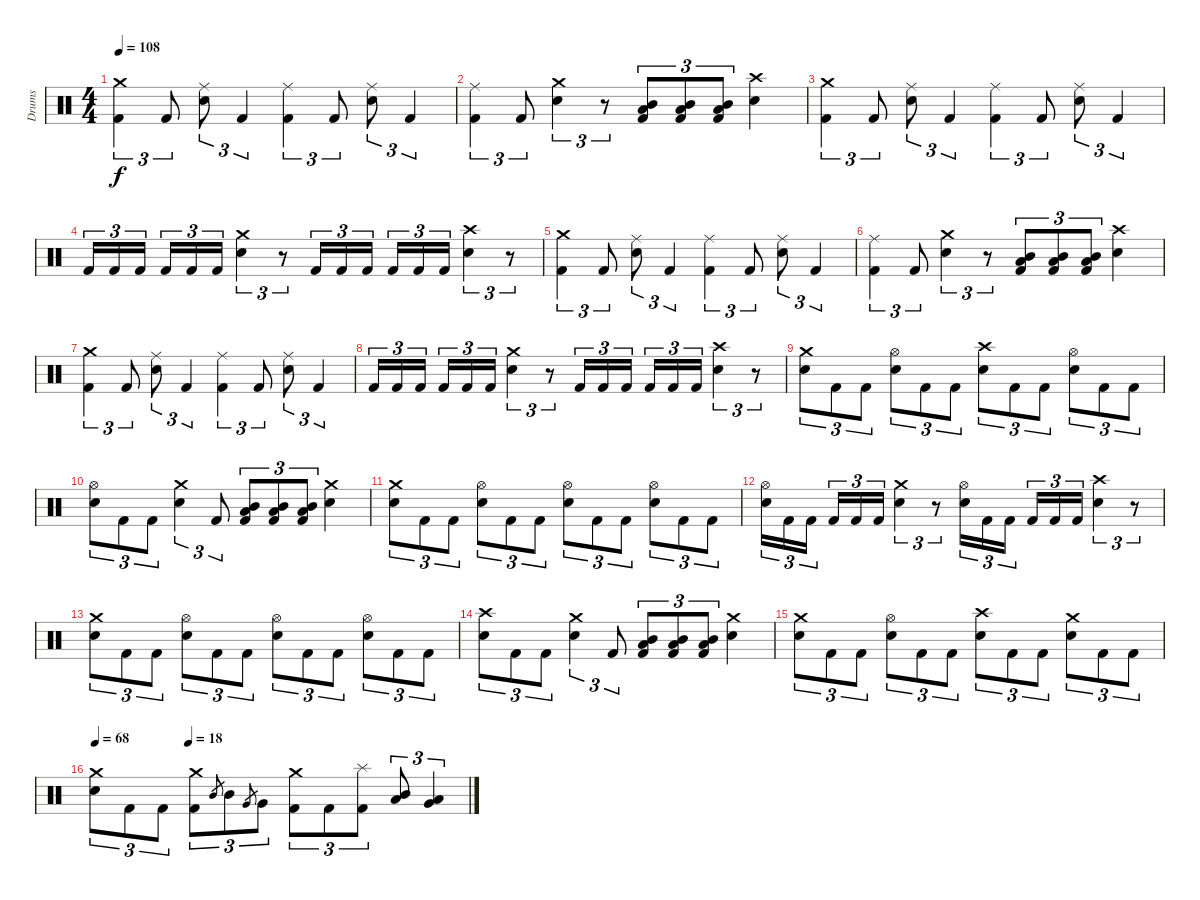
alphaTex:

\track ("Drums" "Drums") {instrument percussion}
\staff {score}
\articulation defaults
\ts (4 4)
\tempo 108
\clef neutral
\ks c
("Crash medium (hit)" "Kick (hit) 2").4{tu (3 2) dy f} "Kick (hit) 2".8{tu (3 2)} ("Ride (middle)" "Electric Snare (hit)").8{tu (3 2)} "Kick (hit) 2".4{tu (3 2)} ("Ride (middle)" "Kick (hit) 2").4{tu (3 2)} "Kick (hit) 2".8{tu (3 2)} ("Ride (middle)" "Electric Snare (hit)").8{tu (3 2)} "Kick (hit) 2".4{tu (3 2)} |
("Ride (middle)" "Kick (hit) 2").4{tu (3 2)} "Kick (hit) 2".8{tu (3 2)} ("Crash medium (hit)" "Electric Snare (hit)").4{tu (3 2)} r.8{tu (3 2)} ("Low Tom (hit)" "Mid Tom (hit)" "Kick (hit) 2").8{tu (3 2)} ("Low Tom (hit)" "Mid Tom (hit)" "Kick (hit) 2").8{tu (3 2)} ("Low Tom (hit)" "Mid Tom (hit)" "Kick (hit) 2").8{tu (3 2)} ("Crash high (hit)" "Electric Snare (hit)").4 |
("Crash medium (hit)" "Kick (hit) 2").4{tu (3 2)} "Kick (hit) 2".8{tu (3 2)} ("Ride (middle)" "Electric Snare (hit)").8{tu (3 2)} "Kick (hit) 2".4{tu (3 2)} ("Ride (middle)" "Kick (hit) 2").4{tu (3 2)} "Kick (hit) 2".8{tu (3 2)} ("Ride (middle)" "Electric Snare (hit)").8{tu (3 2)} "Kick (hit) 2".4{tu (3 2)} |
"Kick (hit) 2".16{tu (3 2)} "Kick (hit) 2".16{tu (3 2)} "Kick (hit) 2".16{tu (3 2) beam splitsecondary} "Kick (hit) 2".16{tu (3 2)} "Kick (hit) 2".16{tu (3 2)} "Kick (hit) 2".16{tu (3 2)} ("Crash medium (hit)" "Electric Snare (hit)").4{tu (3 2)} r.8{tu (3 2)} "Kick (hit) 2".16{tu (3 2)} "Kick (hit) 2".16{tu (3 2)} "Kick (hit) 2".16{tu (3 2) beam splitsecondary} "Kick (hit) 2".16{tu (3 2)} "Kick (hit) 2".16{tu (3 2)} "Kick (hit) 2".16{tu (3 2)} ("Crash high (hit)" "Electric Snare (hit)").4{tu (3 2)} r.8{tu (3 2)} |
("Crash medium (hit)" "Kick (hit) 2").4{tu (3 2)} "Kick (hit) 2".8{tu (3 2)} ("Ride (middle)" "Electric Snare (hit)").8{tu (3 2)} "Kick (hit) 2".4{tu (3 2)} ("Ride (middle)" "Kick (hit) 2").4{tu (3 2)} "Kick (hit) 2".8{tu (3 2)} ("Ride (middle)" "Electric Snare (hit)").8{tu (3 2)} "Kick (hit) 2".4{tu (3 2)} |
("Ride (middle)" "Kick (hit) 2").4{tu (3 2)} "Kick (hit) 2".8{tu (3 2)} ("Crash medium (hit)" "Electric Snare (hit)").4{tu (3 2)} r.8{tu (3 2)} ("Low Tom (hit)" "Mid Tom (hit)" "Kick (hit) 2").8{tu (3 2)} ("Low Tom (hit)" "Mid Tom (hit)" "Kick (hit) 2").8{tu (3 2)} ("Low Tom (hit)" "Mid Tom (hit)" "Kick (hit) 2").8{tu (3 2)} ("Crash high (hit)" "Electric Snare (hit)").4 |
("Crash medium (hit)" "Kick (hit) 2").4{tu (3 2)} "Kick (hit) 2".8{tu (3 2)} ("Ride (middle)" "Electric Snare (hit)").8{tu (3 2)} "Kick (hit) 2".4{tu (3 2)} ("Ride (middle)" "Kick (hit) 2").4{tu (3 2)} "Kick (hit) 2".8{tu (3 2)} ("Ride (middle)" "Electric Snare (hit)").8{tu (3 2)} "Kick (hit) 2".4{tu (3 2)} |
"Kick (hit) 2".16{tu (3 2)} "Kick (hit) 2".16{tu (3 2)} "Kick (hit) 2".16{tu (3 2) beam splitsecondary} "Kick (hit) 2".16{tu (3 2)} "Kick (hit) 2".16{tu (3 2)} "Kick (hit) 2".16{tu (3 2)} ("Crash medium (hit)" "Electric Snare (hit)").4{tu (3 2)} r.8{tu (3 2)} "Kick (hit) 2".16{tu (3 2)} "Kick (hit) 2".16{tu (3 2)} "Kick (hit) 2".16{tu (3 2) beam splitsecondary} "Kick (hit) 2".16{tu (3 2)} "Kick (hit) 2".16{tu (3 2)} "Kick (hit) 2".16{tu (3 2)} ("Crash high (hit)" "Electric Snare (hit)").4{tu (3 2)} r.8{tu (3 2)} |
("Crash medium (hit)" "Electric Snare (hit)").8{tu (3 2)} "Kick (hit) 2".8{tu (3 2)} "Kick (hit) 2".8{tu (3 2)} ("Hi-Hat (open)" "Electric Snare (hit)").8{tu (3 2)} "Kick (hit) 2".8{tu (3 2)} "Kick (hit) 2".8{tu (3 2)} ("Crash high (hit)" "Electric Snare (hit)").8{tu (3 2)} "Kick (hit) 2".8{tu (3 2)} "Kick (hit) 2".8{tu (3 2)} ("Hi-Hat (open)" "Electric Snare (hit)").8{tu (3 2)} "Kick (hit) 2".8{tu (3 2)} "Kick (hit) 2".8{tu (3 2)} |
("Hi-Hat (open)" "Electric Snare (hit)").8{tu (3 2)} "Kick (hit) 2".8{tu (3 2)} "Kick (hit) 2".8{tu (3 2)} ("Crash medium (hit)" "Electric Snare (hit)").4{tu (3 2)} "Kick (hit) 2".8{tu (3 2)} ("Low Tom (hit)" "Mid Tom (hit)" "Kick (hit) 2").8{tu (3 2)} ("Low Tom (hit)" "Mid Tom (hit)" "Kick (hit) 2").8{tu (3 2)} ("Low Tom (hit)" "Mid Tom (hit)" "Kick (hit) 2").8{tu (3 2)} ("Crash medium (hit)" "Electric Snare (hit)").4 |
("Crash medium (hit)" "Electric Snare (hit)").8{tu (3 2)} "Kick (hit) 2".8{tu (3 2)} "Kick (hit) 2".8{tu (3 2)} ("Hi-Hat (open)" "Electric Snare (hit)").8{tu (3 2)} "Kick (hit) 2".8{tu (3 2)} "Kick (hit) 2".8{tu (3 2)} ("Hi-Hat (open)" "Electric Snare (hit)").8{tu (3 2)} "Kick (hit) 2".8{tu (3 2)} "Kick (hit) 2".8{tu (3 2)} ("Hi-Hat (open)" "Electric Snare (hit)").8{tu (3 2)} "Kick (hit) 2".8{tu (3 2)} "Kick (hit) 2".8{tu (3 2)} |
("Hi-Hat (open)" "Electric Snare (hit)").16{tu (3 2)} "Kick (hit) 2".16{tu (3 2)} "Kick (hit) 2".16{tu (3 2) beam splitsecondary} "Kick (hit) 2".16{tu (3 2)} "Kick (hit) 2".16{tu (3 2)} "Kick (hit) 2".16{tu (3 2)} ("Crash medium (hit)" "Electric Snare (hit)").4{tu (3 2)} r.8{tu (3 2)} ("Hi-Hat (open)" "Electric Snare (hit)").16{tu (3 2)} "Kick (hit) 2".16{tu (3 2)} "Kick (hit) 2".16{tu (3 2) beam splitsecondary} "Kick (hit) 2".16{tu (3 2)} "Kick (hit) 2".16{tu (3 2)} "Kick (hit) 2".16{tu (3 2)} ("Crash high (hit)" "Electric Snare (hit)").4{tu (3 2)} r.8{tu (3 2)} |
("Crash medium (hit)" "Electric Snare (hit)").8{tu (3 2)} "Kick (hit) 2".8{tu (3 2)} "Kick (hit) 2".8{tu (3 2)} ("Hi-Hat (open)" "Electric Snare (hit)").8{tu (3 2)} "Kick (hit) 2".8{tu (3 2)} "Kick (hit) 2".8{tu (3 2)} ("Hi-Hat (open)" "Electric Snare (hit)").8{tu (3 2)} "Kick (hit) 2".8{tu (3 2)} "Kick (hit) 2".8{tu (3 2)} ("Hi-Hat (open)" "Electric Snare (hit)").8{tu (3 2)} "Kick (hit) 2".8{tu (3 2)} "Kick (hit) 2".8{tu (3 2)} |
("Crash high (hit)" "Electric Snare (hit)").8{tu (3 2)} "Kick (hit) 2".8{tu (3 2)} "Kick (hit) 2".8{tu (3 2)} ("Crash medium (hit)" "Electric Snare (hit)").4{tu (3 2)} "Kick (hit) 2".8{tu (3 2)} ("Low Tom (hit)" "Mid Tom (hit)" "Kick (hit) 2").8{tu (3 2)} ("Low Tom (hit)" "Mid Tom (hit)" "Kick (hit) 2").8{tu (3 2)} ("Low Tom (hit)" "Mid Tom (hit)" "Kick (hit) 2").8{tu (3 2)} ("Crash medium (hit)" "Electric Snare (hit)").4 |
("Crash medium (hit)" "Electric Snare (hit)").8{tu (3 2)} "Kick (hit) 2".8{tu (3 2)} "Kick (hit) 2".8{tu (3 2)} ("Hi-Hat (open)" "Electric Snare (hit)").8{tu (3 2)} "Kick (hit) 2".8{tu (3 2)} "Kick (hit) 2".8{tu (3 2)} ("Crash high (hit)" "Electric Snare (hit)").8{tu (3 2)} "Kick (hit) 2".8{tu (3 2)} "Kick (hit) 2".8{tu (3 2)} ("Crash medium (hit)" "Electric Snare (hit)").8{tu (3 2)} "Kick (hit) 2".8{tu (3 2)} "Kick (hit) 2".8{tu (3 2)} |
\tempo 68
\tempo (18 0.25)
("Crash medium (hit)" "Electric Snare (hit)").8{tu (3 2)} "Kick (hit) 2".8{tu (3 2)} "Kick (hit) 2".8{tu (3 2)} ("Crash medium (hit)" "Kick (hit) 2").8{tu (3 2)} "Mid Tom (hit)".8{gr} "Mid Tom (hit)".8{tu (3 2)} "Very Low Tom (hit)".8{gr} "Very Low Tom (hit)".8{tu (3 2)} ("Crash medium (hit)" "Kick (hit) 2").8{tu (3 2)} "Kick (hit) 2".8{tu (3 2)} ("Splash (hit)" "Kick (hit) 2").8{tu (3 2)} ("Low Tom (hit)" "Mid Tom (hit)").8{tu (3 2) bd 60} ("Very Low Tom (hit)" "Low Tom (hit)").4{tu (3 2) bd 60}
